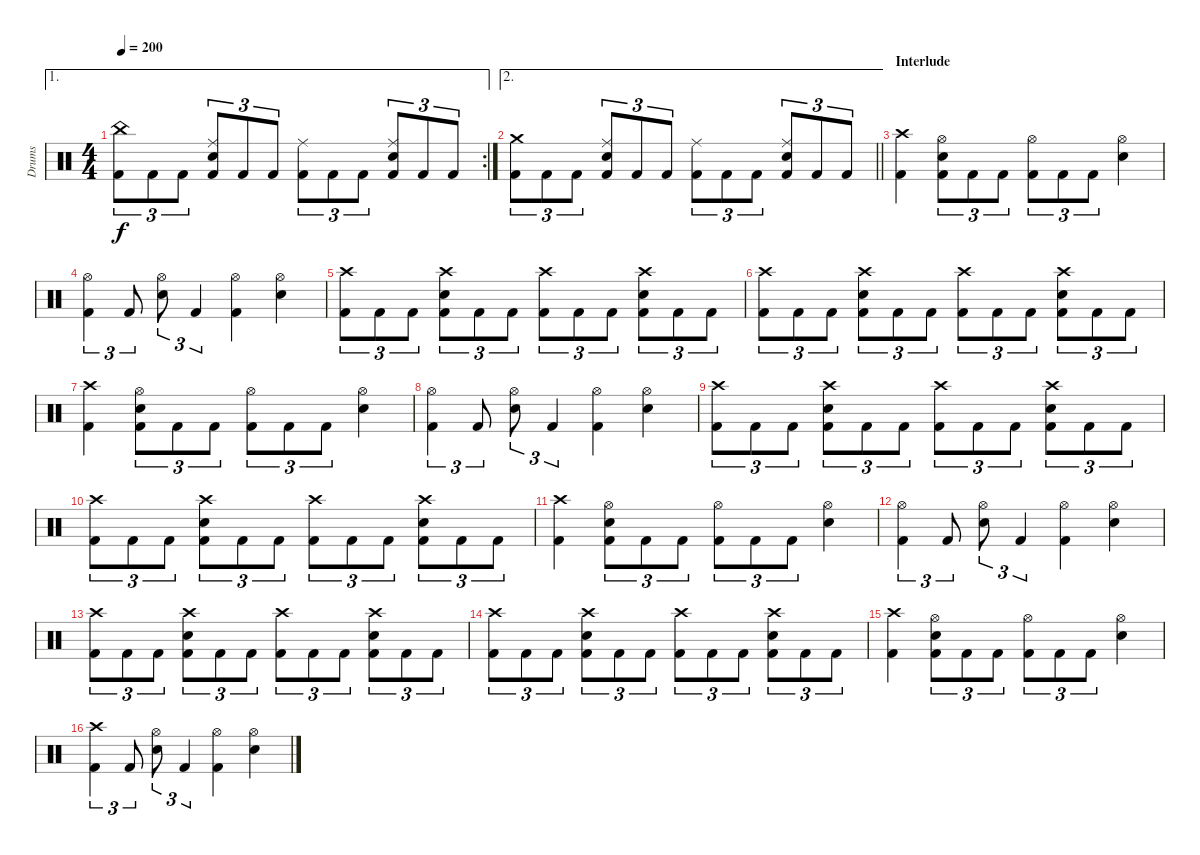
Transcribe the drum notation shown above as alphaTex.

\track ("Drums" "Drums") {instrument percussion}
\staff {score}
\articulation defaults
\ae 1
\rc 2
\ts (4 4)
\tempo 200
\clef neutral
\ks c
("China (hit)" "Kick (hit) 2").8{tu (3 2) dy f} "Kick (hit) 2".8{tu (3 2)} "Kick (hit) 2".8{tu (3 2)} ("Ride (middle)" "Electric Snare (hit)" "Kick (hit) 2").8{tu (3 2)} "Kick (hit) 2".8{tu (3 2)} "Kick (hit) 2".8{tu (3 2)} ("Ride (middle)" "Kick (hit) 2").8{tu (3 2)} "Kick (hit) 2".8{tu (3 2)} "Kick (hit) 2".8{tu (3 2)} ("Ride (middle)" "Electric Snare (hit)" "Kick (hit) 2").8{tu (3 2)} "Kick (hit) 2".8{tu (3 2)} "Kick (hit) 2".8{tu (3 2)} |
\ae 2
\barLineRight lightlight
("Crash medium (hit)" "Kick (hit) 2").8{tu (3 2)} "Kick (hit) 2".8{tu (3 2)} "Kick (hit) 2".8{tu (3 2)} ("Ride (middle)" "Electric Snare (hit)" "Kick (hit) 2").8{tu (3 2)} "Kick (hit) 2".8{tu (3 2)} "Kick (hit) 2".8{tu (3 2)} ("Ride (middle)" "Kick (hit) 2").8{tu (3 2)} "Kick (hit) 2".8{tu (3 2)} "Kick (hit) 2".8{tu (3 2)} ("Ride (middle)" "Electric Snare (hit)" "Kick (hit) 2").8{tu (3 2)} "Kick (hit) 2".8{tu (3 2)} "Kick (hit) 2".8{tu (3 2)} |
\section ("" "Interlude")
("Crash high (hit)" "Kick (hit) 2").4 ("Hi-Hat (open)" "Electric Snare (hit)" "Kick (hit) 2").8{tu (3 2)} "Kick (hit) 2".8{tu (3 2)} "Kick (hit) 2".8{tu (3 2)} ("Hi-Hat (open)" "Kick (hit) 2").8{tu (3 2)} "Kick (hit) 2".8{tu (3 2)} "Kick (hit) 2".8{tu (3 2)} ("Hi-Hat (open)" "Electric Snare (hit)").4 |
("Hi-Hat (open)" "Kick (hit) 2").4{tu (3 2)} "Kick (hit) 2".8{tu (3 2)} ("Hi-Hat (open)" "Electric Snare (hit)").8{tu (3 2)} "Kick (hit) 2".4{tu (3 2)} ("Hi-Hat (open)" "Kick (hit) 2").4 ("Hi-Hat (open)" "Electric Snare (hit)").4 |
("Crash high (hit)" "Kick (hit) 2").8{tu (3 2)} "Kick (hit) 2".8{tu (3 2)} "Kick (hit) 2".8{tu (3 2)} ("Crash high (hit)" "Electric Snare (hit)" "Kick (hit) 2").8{tu (3 2)} "Kick (hit) 2".8{tu (3 2)} "Kick (hit) 2".8{tu (3 2)} ("Crash high (hit)" "Kick (hit) 2").8{tu (3 2)} "Kick (hit) 2".8{tu (3 2)} "Kick (hit) 2".8{tu (3 2)} ("Crash high (hit)" "Electric Snare (hit)" "Kick (hit) 2").8{tu (3 2)} "Kick (hit) 2".8{tu (3 2)} "Kick (hit) 2".8{tu (3 2)} |
("Crash high (hit)" "Kick (hit) 2").8{tu (3 2)} "Kick (hit) 2".8{tu (3 2)} "Kick (hit) 2".8{tu (3 2)} ("Crash high (hit)" "Electric Snare (hit)" "Kick (hit) 2").8{tu (3 2)} "Kick (hit) 2".8{tu (3 2)} "Kick (hit) 2".8{tu (3 2)} ("Crash high (hit)" "Kick (hit) 2").8{tu (3 2)} "Kick (hit) 2".8{tu (3 2)} "Kick (hit) 2".8{tu (3 2)} ("Crash high (hit)" "Electric Snare (hit)" "Kick (hit) 2").8{tu (3 2)} "Kick (hit) 2".8{tu (3 2)} "Kick (hit) 2".8{tu (3 2)} |
("Crash high (hit)" "Kick (hit) 2").4 ("Hi-Hat (open)" "Electric Snare (hit)" "Kick (hit) 2").8{tu (3 2)} "Kick (hit) 2".8{tu (3 2)} "Kick (hit) 2".8{tu (3 2)} ("Hi-Hat (open)" "Kick (hit) 2").8{tu (3 2)} "Kick (hit) 2".8{tu (3 2)} "Kick (hit) 2".8{tu (3 2)} ("Hi-Hat (open)" "Electric Snare (hit)").4 |
("Hi-Hat (open)" "Kick (hit) 2").4{tu (3 2)} "Kick (hit) 2".8{tu (3 2)} ("Hi-Hat (open)" "Electric Snare (hit)").8{tu (3 2)} "Kick (hit) 2".4{tu (3 2)} ("Hi-Hat (open)" "Kick (hit) 2").4 ("Hi-Hat (open)" "Electric Snare (hit)").4 |
("Crash high (hit)" "Kick (hit) 2").8{tu (3 2)} "Kick (hit) 2".8{tu (3 2)} "Kick (hit) 2".8{tu (3 2)} ("Crash high (hit)" "Electric Snare (hit)" "Kick (hit) 2").8{tu (3 2)} "Kick (hit) 2".8{tu (3 2)} "Kick (hit) 2".8{tu (3 2)} ("Crash high (hit)" "Kick (hit) 2").8{tu (3 2)} "Kick (hit) 2".8{tu (3 2)} "Kick (hit) 2".8{tu (3 2)} ("Crash high (hit)" "Electric Snare (hit)" "Kick (hit) 2").8{tu (3 2)} "Kick (hit) 2".8{tu (3 2)} "Kick (hit) 2".8{tu (3 2)} |
("Crash high (hit)" "Kick (hit) 2").8{tu (3 2)} "Kick (hit) 2".8{tu (3 2)} "Kick (hit) 2".8{tu (3 2)} ("Crash high (hit)" "Electric Snare (hit)" "Kick (hit) 2").8{tu (3 2)} "Kick (hit) 2".8{tu (3 2)} "Kick (hit) 2".8{tu (3 2)} ("Crash high (hit)" "Kick (hit) 2").8{tu (3 2)} "Kick (hit) 2".8{tu (3 2)} "Kick (hit) 2".8{tu (3 2)} ("Crash high (hit)" "Electric Snare (hit)" "Kick (hit) 2").8{tu (3 2)} "Kick (hit) 2".8{tu (3 2)} "Kick (hit) 2".8{tu (3 2)} |
("Crash high (hit)" "Kick (hit) 2").4 ("Hi-Hat (open)" "Electric Snare (hit)" "Kick (hit) 2").8{tu (3 2)} "Kick (hit) 2".8{tu (3 2)} "Kick (hit) 2".8{tu (3 2)} ("Hi-Hat (open)" "Kick (hit) 2").8{tu (3 2)} "Kick (hit) 2".8{tu (3 2)} "Kick (hit) 2".8{tu (3 2)} ("Hi-Hat (open)" "Electric Snare (hit)").4 |
("Hi-Hat (open)" "Kick (hit) 2").4{tu (3 2)} "Kick (hit) 2".8{tu (3 2)} ("Hi-Hat (open)" "Electric Snare (hit)").8{tu (3 2)} "Kick (hit) 2".4{tu (3 2)} ("Hi-Hat (open)" "Kick (hit) 2").4 ("Hi-Hat (open)" "Electric Snare (hit)").4 |
("Crash high (hit)" "Kick (hit) 2").8{tu (3 2)} "Kick (hit) 2".8{tu (3 2)} "Kick (hit) 2".8{tu (3 2)} ("Crash high (hit)" "Electric Snare (hit)" "Kick (hit) 2").8{tu (3 2)} "Kick (hit) 2".8{tu (3 2)} "Kick (hit) 2".8{tu (3 2)} ("Crash high (hit)" "Kick (hit) 2").8{tu (3 2)} "Kick (hit) 2".8{tu (3 2)} "Kick (hit) 2".8{tu (3 2)} ("Crash high (hit)" "Electric Snare (hit)" "Kick (hit) 2").8{tu (3 2)} "Kick (hit) 2".8{tu (3 2)} "Kick (hit) 2".8{tu (3 2)} |
("Crash high (hit)" "Kick (hit) 2").8{tu (3 2)} "Kick (hit) 2".8{tu (3 2)} "Kick (hit) 2".8{tu (3 2)} ("Crash high (hit)" "Electric Snare (hit)" "Kick (hit) 2").8{tu (3 2)} "Kick (hit) 2".8{tu (3 2)} "Kick (hit) 2".8{tu (3 2)} ("Crash high (hit)" "Kick (hit) 2").8{tu (3 2)} "Kick (hit) 2".8{tu (3 2)} "Kick (hit) 2".8{tu (3 2)} ("Crash high (hit)" "Electric Snare (hit)" "Kick (hit) 2").8{tu (3 2)} "Kick (hit) 2".8{tu (3 2)} "Kick (hit) 2".8{tu (3 2)} |
("Crash high (hit)" "Kick (hit) 2").4 ("Hi-Hat (open)" "Electric Snare (hit)" "Kick (hit) 2").8{tu (3 2)} "Kick (hit) 2".8{tu (3 2)} "Kick (hit) 2".8{tu (3 2)} ("Hi-Hat (open)" "Kick (hit) 2").8{tu (3 2)} "Kick (hit) 2".8{tu (3 2)} "Kick (hit) 2".8{tu (3 2)} ("Hi-Hat (open)" "Electric Snare (hit)").4 |
("Crash high (hit)" "Kick (hit) 2").4{tu (3 2)} "Kick (hit) 2".8{tu (3 2)} ("Hi-Hat (open)" "Electric Snare (hit)").8{tu (3 2)} "Kick (hit) 2".4{tu (3 2)} ("Hi-Hat (open)" "Kick (hit) 2").4 ("Hi-Hat (open)" "Electric Snare (hit)").4
